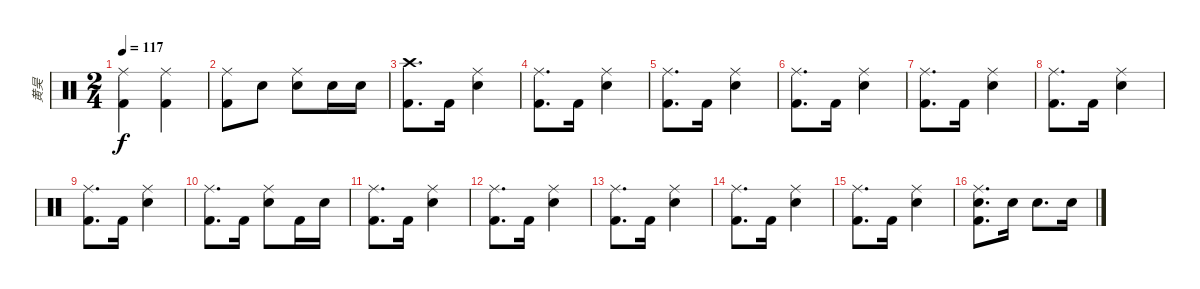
\track ("黄昊" "黄昊") {instrument percussion}
\staff {score}
\articulation defaults
\ts (2 4)
\tempo 117
\clef neutral
\ks c
("Ride (middle)" "Kick (hit) 2").4{dy f} ("Ride (middle)" "Kick (hit) 2").4 |
("Ride (middle)" "Kick (hit) 2").8 "Snare (hit) 2".8 ("Ride (middle)" "Snare (hit) 2").8 "Snare (hit) 2".16 "Snare (hit) 2".16 |
("Crash high (hit)" "Kick (hit) 2").8{d} "Kick (hit) 2".16 ("Ride (middle)" "Snare (hit) 2").4 |
("Ride (middle)" "Kick (hit) 2").8{d} "Kick (hit) 2".16 ("Ride (middle)" "Snare (hit) 2").4 |
("Ride (middle)" "Kick (hit) 2").8{d} "Kick (hit) 2".16 ("Ride (middle)" "Snare (hit) 2").4 |
("Ride (middle)" "Kick (hit) 2").8{d} "Kick (hit) 2".16 ("Ride (middle)" "Snare (hit) 2").4 |
("Ride (middle)" "Kick (hit) 2").8{d} "Kick (hit) 2".16 ("Ride (middle)" "Snare (hit) 2").4 |
("Ride (middle)" "Kick (hit) 2").8{d} "Kick (hit) 2".16 ("Ride (middle)" "Snare (hit) 2").4 |
("Ride (middle)" "Kick (hit) 2").8{d} "Kick (hit) 2".16 ("Ride (middle)" "Snare (hit) 2").4 |
("Ride (middle)" "Kick (hit) 2").8{d} "Kick (hit) 2".16 ("Ride (middle)" "Snare (hit) 2").8 "Kick (hit) 2".16 "Snare (hit) 2".16 |
("Ride (middle)" "Kick (hit) 2").8{d} "Kick (hit) 2".16 ("Ride (middle)" "Snare (hit) 2").4 |
("Ride (middle)" "Kick (hit) 2").8{d} "Kick (hit) 2".16 ("Ride (middle)" "Snare (hit) 2").4 |
("Ride (middle)" "Kick (hit) 2").8{d} "Kick (hit) 2".16 ("Ride (middle)" "Snare (hit) 2").4 |
("Ride (middle)" "Kick (hit) 2").8{d} "Kick (hit) 2".16 ("Ride (middle)" "Snare (hit) 2").4 |
("Ride (middle)" "Kick (hit) 2").8{d} "Kick (hit) 2".16 ("Ride (middle)" "Snare (hit) 2").4 |
("Ride (middle)" "Snare (hit) 2" "Kick (hit) 2").8{d} "Snare (hit) 2".16 "Snare (hit) 2".8{d} "Snare (hit) 2".16
